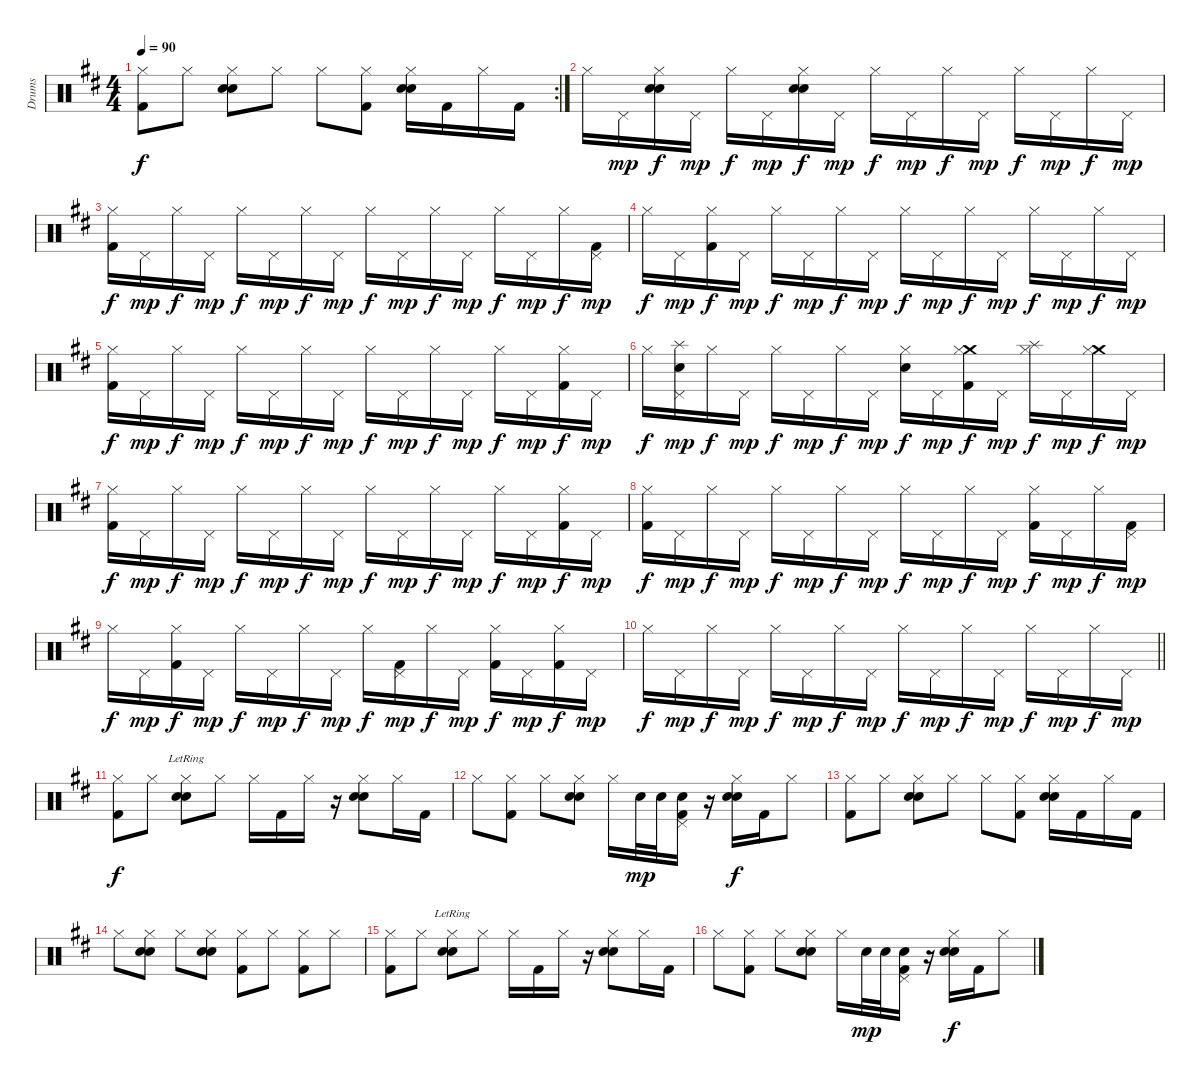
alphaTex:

\track ("Drums" "Drums") {instrument percussion}
\staff {score}
\articulation defaults
\rc 2
\ts (4 4)
\tempo 90
\clef neutral
\ks d
("Hi-Hat (closed)" "Kick (hit) 2").8{dy f} "Hi-Hat (closed)".8 ("Hi-Hat (closed)" "Snare (hit) 2" "Electric Snare (hit)").8 "Hi-Hat (closed)".8 "Hi-Hat (closed)".8 ("Hi-Hat (closed)" "Kick (hit) 2").8 ("Hi-Hat (closed)" "Snare (hit) 2" "Electric Snare (hit)").16 "Kick (hit) 2".16 "Hi-Hat (closed)".16 "Kick (hit) 2".16 |
"Hi-Hat (closed)".16 "Pedal Hi-Hat (hit)".16{dy mp} ("Hi-Hat (closed)" "Snare (hit) 2" "Electric Snare (hit)").16{dy f} "Pedal Hi-Hat (hit)".16{dy mp} "Hi-Hat (closed)".16{dy f} "Pedal Hi-Hat (hit)".16{dy mp} ("Hi-Hat (closed)" "Snare (hit) 2" "Electric Snare (hit)").16{dy f} "Pedal Hi-Hat (hit)".16{dy mp} "Hi-Hat (closed)".16{dy f} "Pedal Hi-Hat (hit)".16{dy mp} "Hi-Hat (closed)".16{dy f} "Pedal Hi-Hat (hit)".16{dy mp} "Hi-Hat (closed)".16{dy f} "Pedal Hi-Hat (hit)".16{dy mp} "Hi-Hat (closed)".16{dy f} "Pedal Hi-Hat (hit)".16{dy mp} |
("Hi-Hat (closed)" "Kick (hit) 2").16{dy f} "Pedal Hi-Hat (hit)".16{dy mp} "Hi-Hat (closed)".16{dy f} "Pedal Hi-Hat (hit)".16{dy mp} "Hi-Hat (closed)".16{dy f} "Pedal Hi-Hat (hit)".16{dy mp} "Hi-Hat (closed)".16{dy f} "Pedal Hi-Hat (hit)".16{dy mp} "Hi-Hat (closed)".16{dy f} "Pedal Hi-Hat (hit)".16{dy mp} "Hi-Hat (closed)".16{dy f} "Pedal Hi-Hat (hit)".16{dy mp} "Hi-Hat (closed)".16{dy f} "Pedal Hi-Hat (hit)".16{dy mp} "Hi-Hat (closed)".16{dy f} ("Pedal Hi-Hat (hit)" "Kick (hit) 2").16{dy mp} |
"Hi-Hat (closed)".16{dy f} "Pedal Hi-Hat (hit)".16{dy mp} ("Hi-Hat (closed)" "Kick (hit) 2").16{dy f} "Pedal Hi-Hat (hit)".16{dy mp} "Hi-Hat (closed)".16{dy f} "Pedal Hi-Hat (hit)".16{dy mp} "Hi-Hat (closed)".16{dy f} "Pedal Hi-Hat (hit)".16{dy mp} "Hi-Hat (closed)".16{dy f} "Pedal Hi-Hat (hit)".16{dy mp} "Hi-Hat (closed)".16{dy f} "Pedal Hi-Hat (hit)".16{dy mp} "Hi-Hat (closed)".16{dy f} "Pedal Hi-Hat (hit)".16{dy mp} "Hi-Hat (closed)".16{dy f} "Pedal Hi-Hat (hit)".16{dy mp} |
("Hi-Hat (closed)" "Kick (hit) 2").16{dy f} "Pedal Hi-Hat (hit)".16{dy mp} "Hi-Hat (closed)".16{dy f} "Pedal Hi-Hat (hit)".16{dy mp} "Hi-Hat (closed)".16{dy f} "Pedal Hi-Hat (hit)".16{dy mp} "Hi-Hat (closed)".16{dy f} "Pedal Hi-Hat (hit)".16{dy mp} "Hi-Hat (closed)".16{dy f} "Pedal Hi-Hat (hit)".16{dy mp} "Hi-Hat (closed)".16{dy f} "Pedal Hi-Hat (hit)".16{dy mp} "Hi-Hat (closed)".16{dy f} "Pedal Hi-Hat (hit)".16{dy mp} ("Hi-Hat (closed)" "Kick (hit) 2").16{dy f} "Pedal Hi-Hat (hit)".16{dy mp} |
"Hi-Hat (closed)".16{dy f} ("Splash (hit)" "Pedal Hi-Hat (hit)" "Snare (hit) 2").16{dy mp} "Hi-Hat (closed)".16{dy f} "Pedal Hi-Hat (hit)".16{dy mp} "Hi-Hat (closed)".16{dy f} "Pedal Hi-Hat (hit)".16{dy mp} "Hi-Hat (closed)".16{dy f} "Pedal Hi-Hat (hit)".16{dy mp} ("Hi-Hat (closed)" "Snare (hit) 2").16{dy f} "Pedal Hi-Hat (hit)".16{dy mp} ("Crash medium (hit)" "Hi-Hat (closed)" "Kick (hit) 2").16{dy f} "Pedal Hi-Hat (hit)".16{dy mp} ("Splash (hit)" "Hi-Hat (closed)").16{dy f} "Pedal Hi-Hat (hit)".16{dy mp} ("Crash medium (hit)" "Hi-Hat (closed)").16{dy f} "Pedal Hi-Hat (hit)".16{dy mp} |
("Hi-Hat (closed)" "Kick (hit) 2").16{dy f} "Pedal Hi-Hat (hit)".16{dy mp} "Hi-Hat (closed)".16{dy f} "Pedal Hi-Hat (hit)".16{dy mp} "Hi-Hat (closed)".16{dy f} "Pedal Hi-Hat (hit)".16{dy mp} "Hi-Hat (closed)".16{dy f} "Pedal Hi-Hat (hit)".16{dy mp} "Hi-Hat (closed)".16{dy f} "Pedal Hi-Hat (hit)".16{dy mp} "Hi-Hat (closed)".16{dy f} "Pedal Hi-Hat (hit)".16{dy mp} "Hi-Hat (closed)".16{dy f} "Pedal Hi-Hat (hit)".16{dy mp} ("Hi-Hat (closed)" "Kick (hit) 2").16{dy f} "Pedal Hi-Hat (hit)".16{dy mp} |
("Hi-Hat (closed)" "Kick (hit) 2").16{dy f} "Pedal Hi-Hat (hit)".16{dy mp} "Hi-Hat (closed)".16{dy f} "Pedal Hi-Hat (hit)".16{dy mp} "Hi-Hat (closed)".16{dy f} "Pedal Hi-Hat (hit)".16{dy mp} "Hi-Hat (closed)".16{dy f} "Pedal Hi-Hat (hit)".16{dy mp} "Hi-Hat (closed)".16{dy f} "Pedal Hi-Hat (hit)".16{dy mp} "Hi-Hat (closed)".16{dy f} "Pedal Hi-Hat (hit)".16{dy mp} ("Hi-Hat (closed)" "Kick (hit) 2").16{dy f} "Pedal Hi-Hat (hit)".16{dy mp} "Hi-Hat (closed)".16{dy f} ("Pedal Hi-Hat (hit)" "Kick (hit) 2").16{dy mp} |
"Hi-Hat (closed)".16{dy f} "Pedal Hi-Hat (hit)".16{dy mp} ("Hi-Hat (closed)" "Kick (hit) 2").16{dy f} "Pedal Hi-Hat (hit)".16{dy mp} "Hi-Hat (closed)".16{dy f} "Pedal Hi-Hat (hit)".16{dy mp} "Hi-Hat (closed)".16{dy f} "Pedal Hi-Hat (hit)".16{dy mp} "Hi-Hat (closed)".16{dy f} ("Pedal Hi-Hat (hit)" "Kick (hit) 2").16{dy mp} "Hi-Hat (closed)".16{dy f} "Pedal Hi-Hat (hit)".16{dy mp} ("Hi-Hat (closed)" "Kick (hit) 2").16{dy f} "Pedal Hi-Hat (hit)".16{dy mp} ("Hi-Hat (closed)" "Kick (hit) 2").16{dy f} "Pedal Hi-Hat (hit)".16{dy mp} |
\barLineRight lightlight "Hi-Hat (closed)".16{dy f} "Pedal Hi-Hat (hit)".16{dy mp} "Hi-Hat (closed)".16{dy f} "Pedal Hi-Hat (hit)".16{dy mp} "Hi-Hat (closed)".16{dy f} "Pedal Hi-Hat (hit)".16{dy mp} "Hi-Hat (closed)".16{dy f} "Pedal Hi-Hat (hit)".16{dy mp} "Hi-Hat (closed)".16{dy f} "Pedal Hi-Hat (hit)".16{dy mp} "Hi-Hat (closed)".16{dy f} "Pedal Hi-Hat (hit)".16{dy mp} "Hi-Hat (closed)".16{dy f} "Pedal Hi-Hat (hit)".16{dy mp} "Hi-Hat (closed)".16{dy f} "Pedal Hi-Hat (hit)".16{dy mp}
|
("Hi-Hat (closed)" "Kick (hit) 2").8{dy f} "Hi-Hat (closed)".8 ("Hi-Hat (closed)" "Snare (hit) 2"{lr} "Electric Snare (hit)").8 "Hi-Hat (closed)".8 "Hi-Hat (closed)".16 "Kick (hit) 2".16 "Hi-Hat (closed)".16 r.16 ("Hi-Hat (closed)" "Snare (hit) 2" "Electric Snare (hit)").8 "Hi-Hat (closed)".16 "Kick (hit) 2".16 |
"Hi-Hat (closed)".8 ("Hi-Hat (closed)" "Kick (hit) 2").8 "Hi-Hat (closed)".8 ("Hi-Hat (closed)" "Snare (hit) 2" "Electric Snare (hit)").8 "Hi-Hat (closed)".16 "Electric Snare (hit)".32{dy mp} "Electric Snare (hit)".32 ("Pedal Hi-Hat (hit)" "Electric Snare (hit)" "Kick (hit) 2").16 r.16 ("Hi-Hat (closed)" "Snare (hit) 2" "Electric Snare (hit)").16{dy f} "Kick (hit) 2".16 "Hi-Hat (closed)".8 |
("Hi-Hat (closed)" "Kick (hit) 2").8 "Hi-Hat (closed)".8 ("Hi-Hat (closed)" "Snare (hit) 2" "Electric Snare (hit)").8 "Hi-Hat (closed)".8 "Hi-Hat (closed)".8 ("Hi-Hat (closed)" "Kick (hit) 2").8 ("Hi-Hat (closed)" "Snare (hit) 2" "Electric Snare (hit)").16 "Kick (hit) 2".16 "Hi-Hat (closed)".16 "Kick (hit) 2".16 |
"Hi-Hat (closed)".8 ("Hi-Hat (closed)" "Snare (hit) 2" "Electric Snare (hit)").8 "Hi-Hat (closed)".8 ("Hi-Hat (closed)" "Snare (hit) 2" "Electric Snare (hit)").8 ("Hi-Hat (closed)" "Kick (hit) 2").8 "Hi-Hat (closed)".8 ("Hi-Hat (closed)" "Kick (hit) 2").8 "Hi-Hat (closed)".8 |
("Hi-Hat (closed)" "Kick (hit) 2").8 "Hi-Hat (closed)".8 ("Hi-Hat (closed)" "Snare (hit) 2"{lr} "Electric Snare (hit)").8 "Hi-Hat (closed)".8 "Hi-Hat (closed)".16 "Kick (hit) 2".16 "Hi-Hat (closed)".16 r.16 ("Hi-Hat (closed)" "Snare (hit) 2" "Electric Snare (hit)").8 "Hi-Hat (closed)".16 "Kick (hit) 2".16 |
"Hi-Hat (closed)".8 ("Hi-Hat (closed)" "Kick (hit) 2").8 "Hi-Hat (closed)".8 ("Hi-Hat (closed)" "Snare (hit) 2" "Electric Snare (hit)").8 "Hi-Hat (closed)".16 "Electric Snare (hit)".32{dy mp} "Electric Snare (hit)".32 ("Pedal Hi-Hat (hit)" "Electric Snare (hit)" "Kick (hit) 2").16 r.16 ("Hi-Hat (closed)" "Snare (hit) 2" "Electric Snare (hit)").16{dy f} "Kick (hit) 2".16 "Hi-Hat (closed)".8
